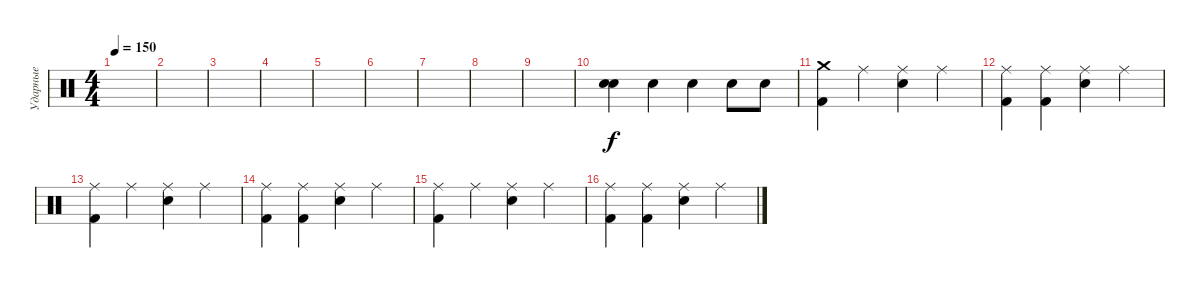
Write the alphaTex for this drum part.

\track ("Ударные" "Ударные") {instrument percussion}
\staff {score}
\articulation defaults
\ts (4 4)
\tempo 150
\clef neutral
\ks c
|
|
|
|
|
|
|
|
|
("Electric Snare (hit)" "Electric Snare (hit)").4{bu 120} "Electric Snare (hit)".4 "Electric Snare (hit)".4 "Electric Snare (hit)".8 "Electric Snare (hit)".8 |
("Crash medium (hit)" "Kick (hit) 2").4 "Ride (middle)".4 ("Ride (middle)" "Electric Snare (hit)").4 "Ride (middle)".4 |
("Ride (middle)" "Kick (hit) 2").4 ("Ride (middle)" "Kick (hit) 2").4 ("Ride (middle)" "Electric Snare (hit)").4 "Ride (middle)".4 |
("Ride (middle)" "Kick (hit) 2").4 "Ride (middle)".4 ("Ride (middle)" "Electric Snare (hit)").4 "Ride (middle)".4 |
("Ride (middle)" "Kick (hit) 2").4 ("Ride (middle)" "Kick (hit) 2").4 ("Ride (middle)" "Electric Snare (hit)").4 "Ride (middle)".4 |
("Ride (middle)" "Kick (hit) 2").4 "Ride (middle)".4 ("Ride (middle)" "Electric Snare (hit)").4 "Ride (middle)".4 |
("Ride (middle)" "Kick (hit) 2").4 ("Ride (middle)" "Kick (hit) 2").4 ("Ride (middle)" "Electric Snare (hit)").4 "Ride (middle)".4
